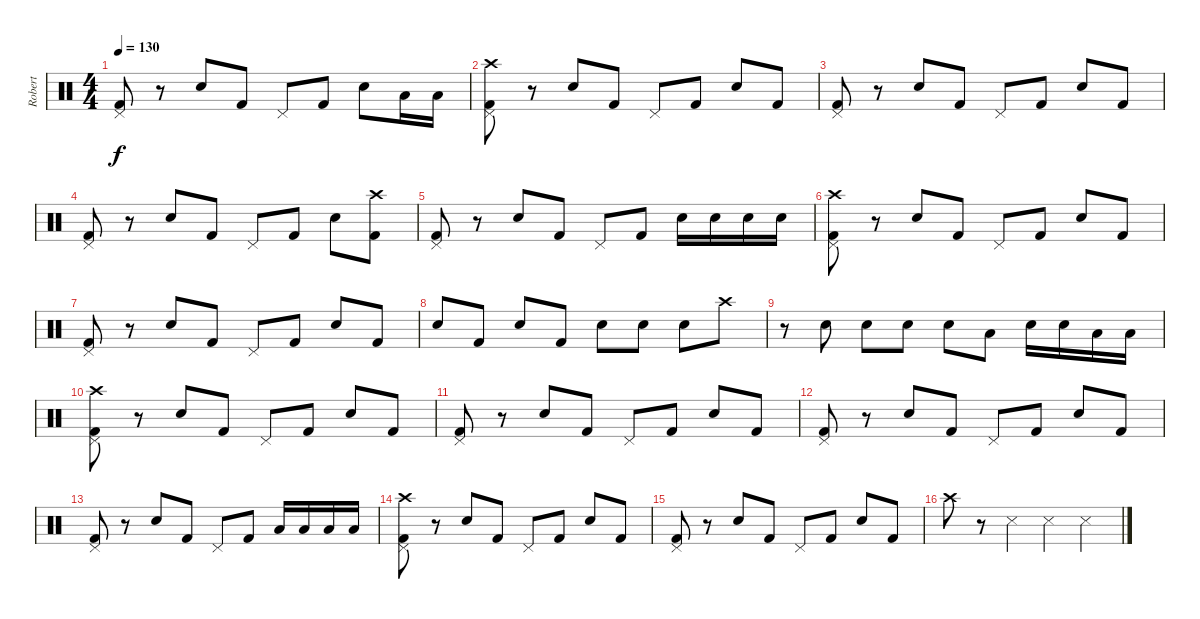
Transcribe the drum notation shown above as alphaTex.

\track ("Robert" "Robert") {instrument percussion}
\staff {score}
\articulation defaults
\ts (4 4)
\tempo 130
\clef neutral
\ks c
("Pedal Hi-Hat (hit)" "Kick (hit) 2").8{dy f} r.8 "Electric Snare (hit)".8 "Kick (hit) 2".8 "Pedal Hi-Hat (hit)".8 "Kick (hit) 2".8 "Electric Snare (hit)".8 "Low Tom (hit)".16 "Low Tom (hit)".16 |
("Crash high (hit)" "Pedal Hi-Hat (hit)" "Kick (hit) 2").8 r.8 "Electric Snare (hit)".8 "Kick (hit) 2".8 "Pedal Hi-Hat (hit)".8 "Kick (hit) 2".8 "Electric Snare (hit)".8 "Kick (hit) 2".8 |
("Pedal Hi-Hat (hit)" "Kick (hit) 2").8 r.8 "Electric Snare (hit)".8 "Kick (hit) 2".8 "Pedal Hi-Hat (hit)".8 "Kick (hit) 2".8 "Electric Snare (hit)".8 "Kick (hit) 2".8 |
("Pedal Hi-Hat (hit)" "Kick (hit) 2").8 r.8 "Electric Snare (hit)".8 "Kick (hit) 2".8 "Pedal Hi-Hat (hit)".8 "Kick (hit) 2".8 "Electric Snare (hit)".8 ("Crash high (hit)" "Kick (hit) 2").8 |
("Pedal Hi-Hat (hit)" "Kick (hit) 2").8 r.8 "Electric Snare (hit)".8 "Kick (hit) 2".8 "Pedal Hi-Hat (hit)".8 "Kick (hit) 2".8 "Electric Snare (hit)".16 "Electric Snare (hit)".16 "Electric Snare (hit)".16 "Electric Snare (hit)".16 |
("Crash high (hit)" "Pedal Hi-Hat (hit)" "Kick (hit) 2").8 r.8 "Electric Snare (hit)".8 "Kick (hit) 2".8 "Pedal Hi-Hat (hit)".8 "Kick (hit) 2".8 "Electric Snare (hit)".8 "Kick (hit) 2".8 |
("Pedal Hi-Hat (hit)" "Kick (hit) 2").8 r.8 "Electric Snare (hit)".8 "Kick (hit) 2".8 "Pedal Hi-Hat (hit)".8 "Kick (hit) 2".8 "Electric Snare (hit)".8 "Kick (hit) 2".8 |
"Electric Snare (hit)".8 "Kick (hit) 2".8 "Electric Snare (hit)".8 "Kick (hit) 2".8 "Electric Snare (hit)".8 "Electric Snare (hit)".8 "Electric Snare (hit)".8 "Crash high (hit)".8 |
r.8 "Electric Snare (hit)".8 "Electric Snare (hit)".8 "Electric Snare (hit)".8 "Electric Snare (hit)".8 "Low Tom (hit)".8 "Electric Snare (hit)".16 "Electric Snare (hit)".16 "Low Tom (hit)".16 "Low Tom (hit)".16 |
("Crash high (hit)" "Pedal Hi-Hat (hit)" "Kick (hit) 2").8 r.8 "Electric Snare (hit)".8 "Kick (hit) 2".8 "Pedal Hi-Hat (hit)".8 "Kick (hit) 2".8 "Electric Snare (hit)".8 "Kick (hit) 2".8 |
("Pedal Hi-Hat (hit)" "Kick (hit) 2").8 r.8 "Electric Snare (hit)".8 "Kick (hit) 2".8 "Pedal Hi-Hat (hit)".8 "Kick (hit) 2".8 "Electric Snare (hit)".8 "Kick (hit) 2".8 |
("Pedal Hi-Hat (hit)" "Kick (hit) 2").8 r.8 "Electric Snare (hit)".8 "Kick (hit) 2".8 "Pedal Hi-Hat (hit)".8 "Kick (hit) 2".8 "Electric Snare (hit)".8 "Kick (hit) 2".8 |
("Pedal Hi-Hat (hit)" "Kick (hit) 2").8 r.8 "Electric Snare (hit)".8 "Kick (hit) 2".8 "Pedal Hi-Hat (hit)".8 "Kick (hit) 2".8 "Low Tom (hit)".16 "Low Tom (hit)".16 "Low Tom (hit)".16 "Low Tom (hit)".16 |
("Crash high (hit)" "Pedal Hi-Hat (hit)" "Kick (hit) 2").8 r.8 "Electric Snare (hit)".8 "Kick (hit) 2".8 "Pedal Hi-Hat (hit)".8 "Kick (hit) 2".8 "Electric Snare (hit)".8 "Kick (hit) 2".8 |
("Pedal Hi-Hat (hit)" "Kick (hit) 2").8 r.8 "Electric Snare (hit)".8 "Kick (hit) 2".8 "Pedal Hi-Hat (hit)".8 "Kick (hit) 2".8 "Electric Snare (hit)".8 "Kick (hit) 2".8 |
"Crash high (hit)".8 r.8 "Snare (side stick) 3".4 "Snare (side stick) 3".4 "Snare (side stick) 3".4
